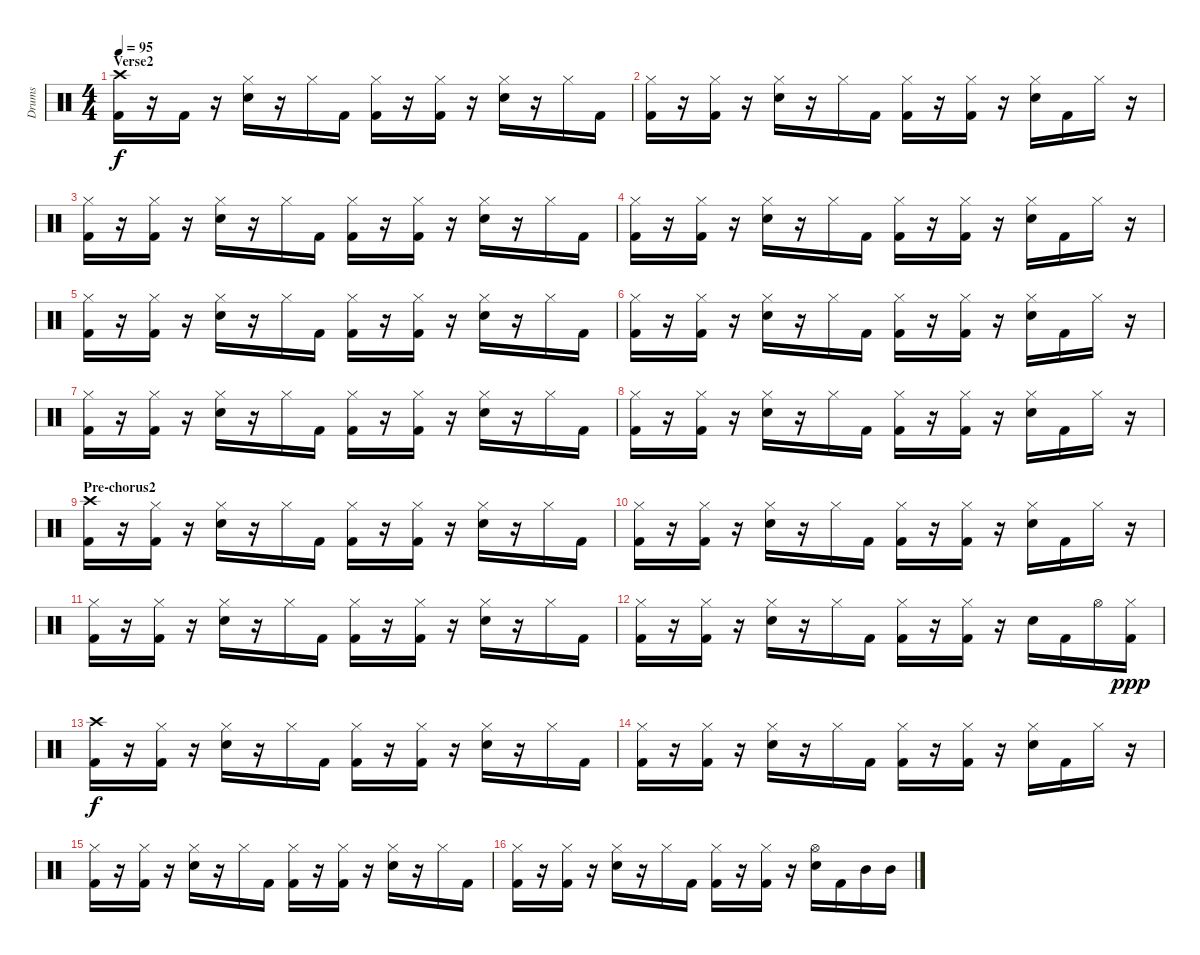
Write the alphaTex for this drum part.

\track ("Drums" "Drums") {instrument percussion}
\staff {score}
\articulation defaults
\ts (4 4)
\section ("" "Verse2")
\tempo 95
\clef neutral
\ks c
("Crash high (hit)" "Kick (hit) 2").16{dy f} r.16 "Kick (hit) 2".16 r.16 ("Hi-Hat (closed)" "Snare (hit) 2").16 r.16 "Hi-Hat (closed)".16 "Kick (hit) 2".16 ("Hi-Hat (closed)" "Kick (hit) 2").16 r.16 ("Hi-Hat (closed)" "Kick (hit) 2").16 r.16 ("Hi-Hat (closed)" "Snare (hit) 2").16 r.16 "Hi-Hat (closed)".16 "Kick (hit) 2".16 |
("Hi-Hat (closed)" "Kick (hit) 2").16 r.16 ("Hi-Hat (closed)" "Kick (hit) 2").16 r.16 ("Hi-Hat (closed)" "Snare (hit) 2").16 r.16 "Hi-Hat (closed)".16 "Kick (hit) 2".16 ("Hi-Hat (closed)" "Kick (hit) 2").16 r.16 ("Hi-Hat (closed)" "Kick (hit) 2").16 r.16 ("Hi-Hat (closed)" "Snare (hit) 2").16 "Kick (hit) 2".16 "Hi-Hat (closed)".16 r.16 |
("Hi-Hat (closed)" "Kick (hit) 2").16 r.16 ("Hi-Hat (closed)" "Kick (hit) 2").16 r.16 ("Hi-Hat (closed)" "Snare (hit) 2").16 r.16 "Hi-Hat (closed)".16 "Kick (hit) 2".16 ("Hi-Hat (closed)" "Kick (hit) 2").16 r.16 ("Hi-Hat (closed)" "Kick (hit) 2").16 r.16 ("Hi-Hat (closed)" "Snare (hit) 2").16 r.16 "Hi-Hat (closed)".16 "Kick (hit) 2".16 |
("Hi-Hat (closed)" "Kick (hit) 2").16 r.16 ("Hi-Hat (closed)" "Kick (hit) 2").16 r.16 ("Hi-Hat (closed)" "Snare (hit) 2").16 r.16 "Hi-Hat (closed)".16 "Kick (hit) 2".16 ("Hi-Hat (closed)" "Kick (hit) 2").16 r.16 ("Hi-Hat (closed)" "Kick (hit) 2").16 r.16 ("Hi-Hat (closed)" "Snare (hit) 2").16 "Kick (hit) 2".16 "Hi-Hat (closed)".16 r.16 |
("Hi-Hat (closed)" "Kick (hit) 2").16 r.16 ("Hi-Hat (closed)" "Kick (hit) 2").16 r.16 ("Hi-Hat (closed)" "Snare (hit) 2").16 r.16 "Hi-Hat (closed)".16 "Kick (hit) 2".16 ("Hi-Hat (closed)" "Kick (hit) 2").16 r.16 ("Hi-Hat (closed)" "Kick (hit) 2").16 r.16 ("Hi-Hat (closed)" "Snare (hit) 2").16 r.16 "Hi-Hat (closed)".16 "Kick (hit) 2".16 |
("Hi-Hat (closed)" "Kick (hit) 2").16 r.16 ("Hi-Hat (closed)" "Kick (hit) 2").16 r.16 ("Hi-Hat (closed)" "Snare (hit) 2").16 r.16 "Hi-Hat (closed)".16 "Kick (hit) 2".16 ("Hi-Hat (closed)" "Kick (hit) 2").16 r.16 ("Hi-Hat (closed)" "Kick (hit) 2").16 r.16 ("Hi-Hat (closed)" "Snare (hit) 2").16 "Kick (hit) 2".16 "Hi-Hat (closed)".16 r.16 |
("Hi-Hat (closed)" "Kick (hit) 2").16 r.16 ("Hi-Hat (closed)" "Kick (hit) 2").16 r.16 ("Hi-Hat (closed)" "Snare (hit) 2").16 r.16 "Hi-Hat (closed)".16 "Kick (hit) 2".16 ("Hi-Hat (closed)" "Kick (hit) 2").16 r.16 ("Hi-Hat (closed)" "Kick (hit) 2").16 r.16 ("Hi-Hat (closed)" "Snare (hit) 2").16 r.16 "Hi-Hat (closed)".16 "Kick (hit) 2".16 |
("Hi-Hat (closed)" "Kick (hit) 2").16 r.16 ("Hi-Hat (closed)" "Kick (hit) 2").16 r.16 ("Hi-Hat (closed)" "Snare (hit) 2").16 r.16 "Hi-Hat (closed)".16 "Kick (hit) 2".16 ("Hi-Hat (closed)" "Kick (hit) 2").16 r.16 ("Hi-Hat (closed)" "Kick (hit) 2").16 r.16 ("Hi-Hat (closed)" "Snare (hit) 2").16 "Kick (hit) 2".16 "Hi-Hat (closed)".16 r.16 |
\section ("" "Pre-chorus2")
("Crash high (hit)" "Kick (hit) 2").16 r.16 ("Hi-Hat (closed)" "Kick (hit) 2").16 r.16 ("Hi-Hat (closed)" "Snare (hit) 2").16 r.16 "Hi-Hat (closed)".16 "Kick (hit) 2".16 ("Hi-Hat (closed)" "Kick (hit) 2").16 r.16 ("Hi-Hat (closed)" "Kick (hit) 2").16 r.16 ("Hi-Hat (closed)" "Snare (hit) 2").16 r.16 "Hi-Hat (closed)".16 "Kick (hit) 2".16 |
("Hi-Hat (closed)" "Kick (hit) 2").16 r.16 ("Hi-Hat (closed)" "Kick (hit) 2").16 r.16 ("Hi-Hat (closed)" "Snare (hit) 2").16 r.16 "Hi-Hat (closed)".16 "Kick (hit) 2".16 ("Hi-Hat (closed)" "Kick (hit) 2").16 r.16 ("Hi-Hat (closed)" "Kick (hit) 2").16 r.16 ("Hi-Hat (closed)" "Snare (hit) 2").16 "Kick (hit) 2".16 "Hi-Hat (closed)".16 r.16 |
("Hi-Hat (closed)" "Kick (hit) 2").16 r.16 ("Hi-Hat (closed)" "Kick (hit) 2").16 r.16 ("Hi-Hat (closed)" "Snare (hit) 2").16 r.16 "Hi-Hat (closed)".16 "Kick (hit) 2".16 ("Hi-Hat (closed)" "Kick (hit) 2").16 r.16 ("Hi-Hat (closed)" "Kick (hit) 2").16 r.16 ("Hi-Hat (closed)" "Snare (hit) 2").16 r.16 "Hi-Hat (closed)".16 "Kick (hit) 2".16 |
("Hi-Hat (closed)" "Kick (hit) 2").16 r.16 ("Hi-Hat (closed)" "Kick (hit) 2").16 r.16 ("Hi-Hat (closed)" "Snare (hit) 2").16 r.16 "Hi-Hat (closed)".16 "Kick (hit) 2".16 ("Hi-Hat (closed)" "Kick (hit) 2").16 r.16 ("Hi-Hat (closed)" "Kick (hit) 2").16 r.16 "Snare (hit) 2".16 "Kick (hit) 2".16 "Hi-Hat (open)".16 ("Hi-Hat (closed)" "Kick (hit) 2").16{dy ppp} |
("Crash high (hit)" "Kick (hit) 2").16{dy f} r.16 ("Hi-Hat (closed)" "Kick (hit) 2").16 r.16 ("Hi-Hat (closed)" "Snare (hit) 2").16 r.16 "Hi-Hat (closed)".16 "Kick (hit) 2".16 ("Hi-Hat (closed)" "Kick (hit) 2").16 r.16 ("Hi-Hat (closed)" "Kick (hit) 2").16 r.16 ("Hi-Hat (closed)" "Snare (hit) 2").16 r.16 "Hi-Hat (closed)".16 "Kick (hit) 2".16 |
("Hi-Hat (closed)" "Kick (hit) 2").16 r.16 ("Hi-Hat (closed)" "Kick (hit) 2").16 r.16 ("Hi-Hat (closed)" "Snare (hit) 2").16 r.16 "Hi-Hat (closed)".16 "Kick (hit) 2".16 ("Hi-Hat (closed)" "Kick (hit) 2").16 r.16 ("Hi-Hat (closed)" "Kick (hit) 2").16 r.16 ("Hi-Hat (closed)" "Snare (hit) 2").16 "Kick (hit) 2".16 "Hi-Hat (closed)".16 r.16 |
("Hi-Hat (closed)" "Kick (hit) 2").16 r.16 ("Hi-Hat (closed)" "Kick (hit) 2").16 r.16 ("Hi-Hat (closed)" "Snare (hit) 2").16 r.16 "Hi-Hat (closed)".16 "Kick (hit) 2".16 ("Hi-Hat (closed)" "Kick (hit) 2").16 r.16 ("Hi-Hat (closed)" "Kick (hit) 2").16 r.16 ("Hi-Hat (closed)" "Snare (hit) 2").16 r.16 "Hi-Hat (closed)".16 "Kick (hit) 2".16 |
("Hi-Hat (closed)" "Kick (hit) 2").16 r.16 ("Hi-Hat (closed)" "Kick (hit) 2").16 r.16 ("Hi-Hat (closed)" "Snare (hit) 2").16 r.16 "Hi-Hat (closed)".16 "Kick (hit) 2".16 ("Hi-Hat (closed)" "Kick (hit) 2").16 r.16 ("Hi-Hat (closed)" "Kick (hit) 2").16 r.16 ("Hi-Hat (open)" "Snare (hit) 2").16 "Kick (hit) 2".16 "Mid Tom (hit)".16 "Mid Tom (hit)".16
